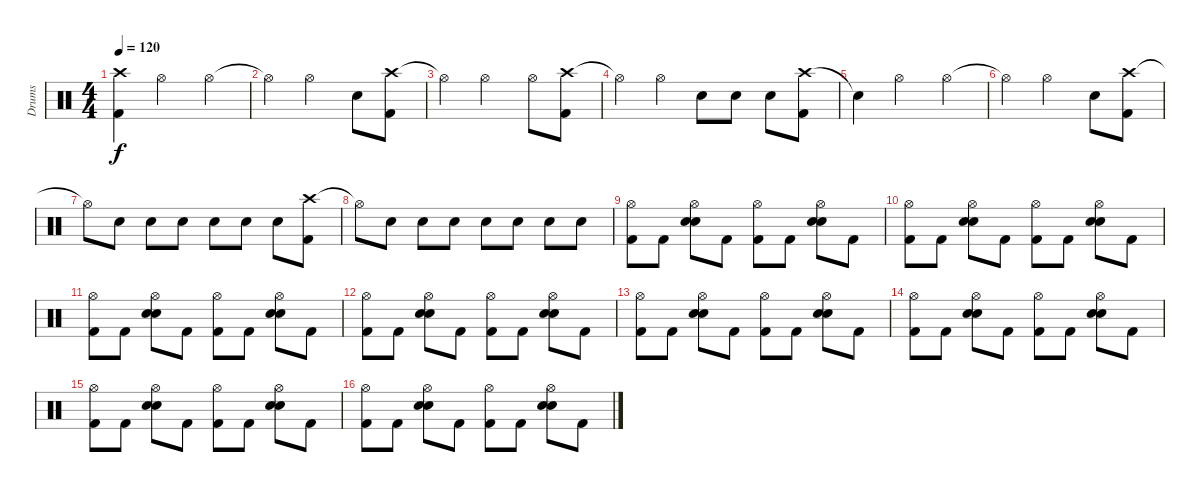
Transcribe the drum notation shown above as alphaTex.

\track ("Drums" "Drums") {instrument percussion}
\staff {score}
\articulation defaults
\ts (4 4)
\tempo 120
\clef neutral
\ks c
("Crash high (hit)" "Kick (hit) 2").4{dy f} "Hi-Hat (open)".2 "Hi-Hat (open)".4 |
"Hi-Hat (open)"{t}.4 "Hi-Hat (open)".2 "Snare (hit) 2".8 ("Crash high (hit)" "Kick (hit) 2").8 |
"Hi-Hat (open)"{t}.4 "Hi-Hat (open)".2 "Hi-Hat (open)".8 ("Crash high (hit)" "Kick (hit) 2").8 |
"Hi-Hat (open)"{t}.4 "Hi-Hat (open)".4 "Snare (hit) 2".8 "Snare (hit) 2".8 "Snare (hit) 2".8 ("Crash high (hit)" "Kick (hit) 2").8 |
"Snare (hit)"{t}.4 "Hi-Hat (open)".2 "Hi-Hat (open)".4 |
"Hi-Hat (open)"{t}.4 "Hi-Hat (open)".2 "Snare (hit) 2".8 ("Crash high (hit)" "Kick (hit) 2").8 |
"Hi-Hat (open)"{t}.8 "Snare (hit) 2".8 "Snare (hit) 2".8 "Snare (hit) 2".8 "Snare (hit) 2".8 "Snare (hit) 2".8 "Snare (hit) 2".8 ("Crash high (hit)" "Kick (hit) 2").8 |
"Hi-Hat (open)"{t}.8 "Snare (hit) 2".8 "Snare (hit) 2".8 "Snare (hit) 2".8 "Snare (hit) 2".8 "Snare (hit) 2".8 "Snare (hit) 2".8 "Snare (hit) 2".8 |
("Hi-Hat (open)" "Kick (hit) 2").8 "Kick (hit) 2".8 ("Hi-Hat (open)" "Electric Snare (hit)" "Snare (hit) 2").8 "Kick (hit) 2".8 ("Hi-Hat (open)" "Kick (hit) 2").8 "Kick (hit) 2".8 ("Hi-Hat (open)" "Electric Snare (hit)" "Snare (hit) 2").8 "Kick (hit) 2".8 |
("Hi-Hat (open)" "Kick (hit) 2").8 "Kick (hit) 2".8 ("Hi-Hat (open)" "Electric Snare (hit)" "Snare (hit) 2").8 "Kick (hit) 2".8 ("Hi-Hat (open)" "Kick (hit) 2").8 "Kick (hit) 2".8 ("Hi-Hat (open)" "Electric Snare (hit)" "Snare (hit) 2").8 "Kick (hit) 2".8 |
("Hi-Hat (open)" "Kick (hit) 2").8 "Kick (hit) 2".8 ("Hi-Hat (open)" "Electric Snare (hit)" "Snare (hit) 2").8 "Kick (hit) 2".8 ("Hi-Hat (open)" "Kick (hit) 2").8 "Kick (hit) 2".8 ("Hi-Hat (open)" "Electric Snare (hit)" "Snare (hit) 2").8 "Kick (hit) 2".8 |
("Hi-Hat (open)" "Kick (hit) 2").8 "Kick (hit) 2".8 ("Hi-Hat (open)" "Electric Snare (hit)" "Snare (hit) 2").8 "Kick (hit) 2".8 ("Hi-Hat (open)" "Kick (hit) 2").8 "Kick (hit) 2".8 ("Hi-Hat (open)" "Electric Snare (hit)" "Snare (hit) 2").8 "Kick (hit) 2".8 |
("Hi-Hat (open)" "Kick (hit) 2").8 "Kick (hit) 2".8 ("Hi-Hat (open)" "Electric Snare (hit)" "Snare (hit) 2").8 "Kick (hit) 2".8 ("Hi-Hat (open)" "Kick (hit) 2").8 "Kick (hit) 2".8 ("Hi-Hat (open)" "Electric Snare (hit)" "Snare (hit) 2").8 "Kick (hit) 2".8 |
("Hi-Hat (open)" "Kick (hit) 2").8 "Kick (hit) 2".8 ("Hi-Hat (open)" "Electric Snare (hit)" "Snare (hit) 2").8 "Kick (hit) 2".8 ("Hi-Hat (open)" "Kick (hit) 2").8 "Kick (hit) 2".8 ("Hi-Hat (open)" "Electric Snare (hit)" "Snare (hit) 2").8 "Kick (hit) 2".8 |
("Hi-Hat (open)" "Kick (hit) 2").8 "Kick (hit) 2".8 ("Hi-Hat (open)" "Electric Snare (hit)" "Snare (hit) 2").8 "Kick (hit) 2".8 ("Hi-Hat (open)" "Kick (hit) 2").8 "Kick (hit) 2".8 ("Hi-Hat (open)" "Electric Snare (hit)" "Snare (hit) 2").8 "Kick (hit) 2".8 |
("Hi-Hat (open)" "Kick (hit) 2").8 "Kick (hit) 2".8 ("Hi-Hat (open)" "Electric Snare (hit)" "Snare (hit) 2").8 "Kick (hit) 2".8 ("Hi-Hat (open)" "Kick (hit) 2").8 "Kick (hit) 2".8 ("Hi-Hat (open)" "Electric Snare (hit)" "Snare (hit) 2").8 "Kick (hit) 2".8
